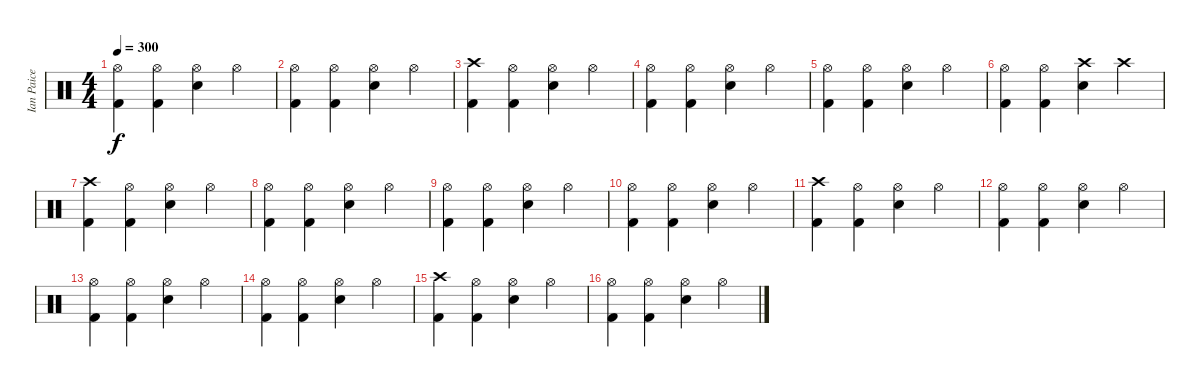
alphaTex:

\track ("Ian Paice" "Ian Paice") {instrument percussion}
\staff {score}
\articulation defaults
\ts (4 4)
\tempo 300
\clef neutral
\ks c
("Hi-Hat (open)" "Kick (hit) 2").4{dy f} ("Hi-Hat (open)" "Kick (hit) 2").4 ("Hi-Hat (open)" "Electric Snare (hit)").4 "Hi-Hat (open)".4 |
("Hi-Hat (open)" "Kick (hit) 2").4 ("Hi-Hat (open)" "Kick (hit) 2").4 ("Hi-Hat (open)" "Electric Snare (hit)").4 "Hi-Hat (open)".4 |
("Crash high (hit)" "Kick (hit) 2").4 ("Hi-Hat (open)" "Kick (hit) 2").4 ("Hi-Hat (open)" "Electric Snare (hit)").4 "Hi-Hat (open)".4 |
("Hi-Hat (open)" "Kick (hit) 2").4 ("Hi-Hat (open)" "Kick (hit) 2").4 ("Hi-Hat (open)" "Electric Snare (hit)").4 "Hi-Hat (open)".4 |
("Hi-Hat (open)" "Kick (hit) 2").4 ("Hi-Hat (open)" "Kick (hit) 2").4 ("Hi-Hat (open)" "Electric Snare (hit)").4 "Hi-Hat (open)".4 |
("Hi-Hat (open)" "Kick (hit) 2").4 ("Hi-Hat (open)" "Kick (hit) 2").4 ("Crash high (hit)" "Electric Snare (hit)").4 "Crash high (hit)".4 |
("Crash high (hit)" "Kick (hit) 2").4 ("Hi-Hat (open)" "Kick (hit) 2").4 ("Hi-Hat (open)" "Electric Snare (hit)").4 "Hi-Hat (open)".4 |
("Hi-Hat (open)" "Kick (hit) 2").4 ("Hi-Hat (open)" "Kick (hit) 2").4 ("Hi-Hat (open)" "Electric Snare (hit)").4 "Hi-Hat (open)".4 |
("Hi-Hat (open)" "Kick (hit) 2").4 ("Hi-Hat (open)" "Kick (hit) 2").4 ("Hi-Hat (open)" "Electric Snare (hit)").4 "Hi-Hat (open)".4 |
("Hi-Hat (open)" "Kick (hit) 2").4 ("Hi-Hat (open)" "Kick (hit) 2").4 ("Hi-Hat (open)" "Electric Snare (hit)").4 "Hi-Hat (open)".4 |
("Crash high (hit)" "Kick (hit) 2").4 ("Hi-Hat (open)" "Kick (hit) 2").4 ("Hi-Hat (open)" "Electric Snare (hit)").4 "Hi-Hat (open)".4 |
("Hi-Hat (open)" "Kick (hit) 2").4 ("Hi-Hat (open)" "Kick (hit) 2").4 ("Hi-Hat (open)" "Electric Snare (hit)").4 "Hi-Hat (open)".4 |
("Hi-Hat (open)" "Kick (hit) 2").4 ("Hi-Hat (open)" "Kick (hit) 2").4 ("Hi-Hat (open)" "Electric Snare (hit)").4 "Hi-Hat (open)".4 |
("Hi-Hat (open)" "Kick (hit) 2").4 ("Hi-Hat (open)" "Kick (hit) 2").4 ("Hi-Hat (open)" "Electric Snare (hit)").4 "Hi-Hat (open)".4 |
("Crash high (hit)" "Kick (hit) 2").4 ("Hi-Hat (open)" "Kick (hit) 2").4 ("Hi-Hat (open)" "Electric Snare (hit)").4 "Hi-Hat (open)".4 |
("Hi-Hat (open)" "Kick (hit) 2").4 ("Hi-Hat (open)" "Kick (hit) 2").4 ("Hi-Hat (open)" "Electric Snare (hit)").4 "Hi-Hat (open)".4
